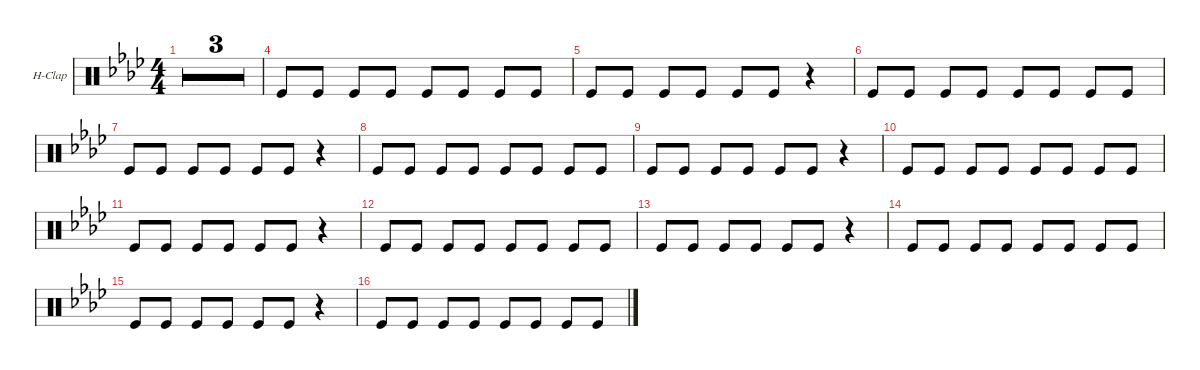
\defaultSystemsLayout 4
\hideDynamics
\bracketExtendMode groupsimilarinstruments
\firstSystemTrackNameOrientation horizontal
\otherSystemsTrackNameOrientation horizontal
\track ("Hand Clap" "H-Clap") {multiBarRest instrument percussion}
\staff {score}
\articulation defaults
\ts (4 4)
\tempo 142
\clef neutral
\ks ab
r.1{dy fff} |
\barLineRight lightlight
|
\barLineRight lightlight
r.1 |
"Kick (hit)".8 "Kick (hit)".8 "Kick (hit)".8 "Kick (hit)".8 "Kick (hit)".8 "Kick (hit)".8 "Kick (hit)".8 "Kick (hit)".8 |
"Kick (hit)".8 "Kick (hit)".8 "Kick (hit)".8 "Kick (hit)".8 "Kick (hit)".8 "Kick (hit)".8 r.4 |
"Kick (hit)".8 "Kick (hit)".8 "Kick (hit)".8 "Kick (hit)".8 "Kick (hit)".8 "Kick (hit)".8 "Kick (hit)".8 "Kick (hit)".8 |
"Kick (hit)".8 "Kick (hit)".8 "Kick (hit)".8 "Kick (hit)".8 "Kick (hit)".8 "Kick (hit)".8 r.4 |
"Kick (hit)".8 "Kick (hit)".8 "Kick (hit)".8 "Kick (hit)".8 "Kick (hit)".8 "Kick (hit)".8 "Kick (hit)".8 "Kick (hit)".8 |
"Kick (hit)".8 "Kick (hit)".8 "Kick (hit)".8 "Kick (hit)".8 "Kick (hit)".8 "Kick (hit)".8 r.4 |
"Kick (hit)".8 "Kick (hit)".8 "Kick (hit)".8 "Kick (hit)".8 "Kick (hit)".8 "Kick (hit)".8 "Kick (hit)".8 "Kick (hit)".8 |
"Kick (hit)".8 "Kick (hit)".8 "Kick (hit)".8 "Kick (hit)".8 "Kick (hit)".8 "Kick (hit)".8 r.4 |
"Kick (hit)".8 "Kick (hit)".8 "Kick (hit)".8 "Kick (hit)".8 "Kick (hit)".8 "Kick (hit)".8 "Kick (hit)".8 "Kick (hit)".8 |
"Kick (hit)".8 "Kick (hit)".8 "Kick (hit)".8 "Kick (hit)".8 "Kick (hit)".8 "Kick (hit)".8 r.4 |
"Kick (hit)".8 "Kick (hit)".8 "Kick (hit)".8 "Kick (hit)".8 "Kick (hit)".8 "Kick (hit)".8 "Kick (hit)".8 "Kick (hit)".8 |
"Kick (hit)".8 "Kick (hit)".8 "Kick (hit)".8 "Kick (hit)".8 "Kick (hit)".8 "Kick (hit)".8 r.4 |
"Kick (hit)".8 "Kick (hit)".8 "Kick (hit)".8 "Kick (hit)".8 "Kick (hit)".8 "Kick (hit)".8 "Kick (hit)".8 "Kick (hit)".8
